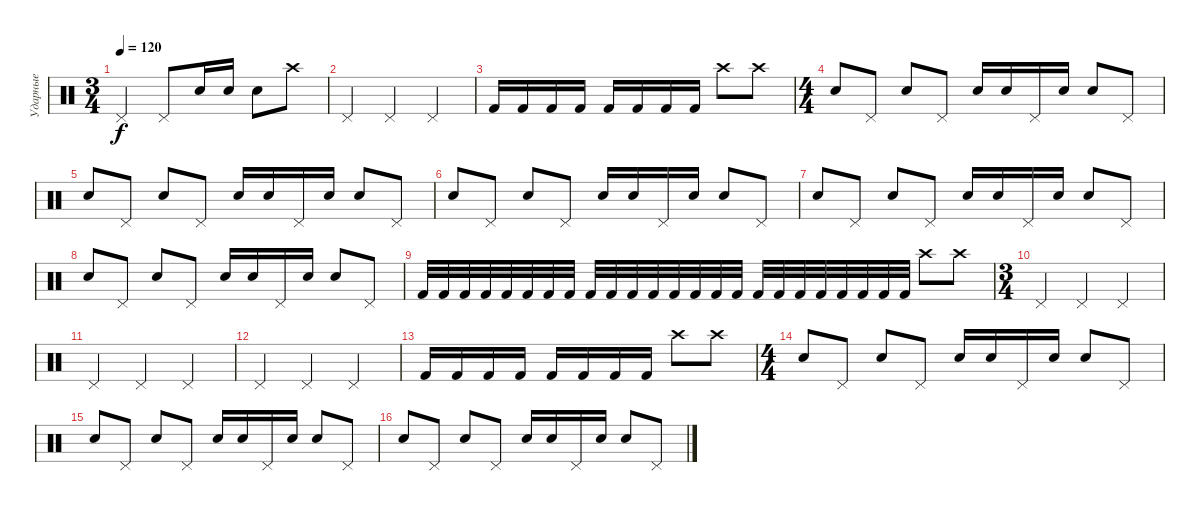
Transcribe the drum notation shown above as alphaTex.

\track ("Ударные" "Ударные") {instrument percussion}
\staff {score}
\articulation defaults
\ts (3 4)
\tempo 120
\clef neutral
\ks c "Pedal Hi-Hat (hit)".4{dy f} "Pedal Hi-Hat (hit)".8 "Snare (hit) 2".16 "Snare (hit) 2".16 "Snare (hit) 2".8 "Crash high (hit)".8
|
"Pedal Hi-Hat (hit)".4 "Pedal Hi-Hat (hit)".4 "Pedal Hi-Hat (hit)".4 |
"Kick (hit) 2".16 "Kick (hit) 2".16 "Kick (hit) 2".16 "Kick (hit) 2".16 "Kick (hit) 2".16 "Kick (hit) 2".16 "Kick (hit) 2".16 "Kick (hit) 2".16 "Crash high (hit)".8 "Crash high (hit)".8 |
\ts (4 4)
"Snare (hit) 2".8 "Pedal Hi-Hat (hit)".8 "Snare (hit) 2".8 "Pedal Hi-Hat (hit)".8 "Snare (hit) 2".16 "Snare (hit) 2".16 "Pedal Hi-Hat (hit)".16 "Snare (hit) 2".16 "Snare (hit) 2".8 "Pedal Hi-Hat (hit)".8 |
"Snare (hit) 2".8 "Pedal Hi-Hat (hit)".8 "Snare (hit) 2".8 "Pedal Hi-Hat (hit)".8 "Snare (hit) 2".16 "Snare (hit) 2".16 "Pedal Hi-Hat (hit)".16 "Snare (hit) 2".16 "Snare (hit) 2".8 "Pedal Hi-Hat (hit)".8 |
"Snare (hit) 2".8 "Pedal Hi-Hat (hit)".8 "Snare (hit) 2".8 "Pedal Hi-Hat (hit)".8 "Snare (hit) 2".16 "Snare (hit) 2".16 "Pedal Hi-Hat (hit)".16 "Snare (hit) 2".16 "Snare (hit) 2".8 "Pedal Hi-Hat (hit)".8 |
"Snare (hit) 2".8 "Pedal Hi-Hat (hit)".8 "Snare (hit) 2".8 "Pedal Hi-Hat (hit)".8 "Snare (hit) 2".16 "Snare (hit) 2".16 "Pedal Hi-Hat (hit)".16 "Snare (hit) 2".16 "Snare (hit) 2".8 "Pedal Hi-Hat (hit)".8 |
"Snare (hit) 2".8 "Pedal Hi-Hat (hit)".8 "Snare (hit) 2".8 "Pedal Hi-Hat (hit)".8 "Snare (hit) 2".16 "Snare (hit) 2".16 "Pedal Hi-Hat (hit)".16 "Snare (hit) 2".16 "Snare (hit) 2".8 "Pedal Hi-Hat (hit)".8 |
"Kick (hit) 2".32 "Kick (hit) 2".32 "Kick (hit) 2".32 "Kick (hit) 2".32 "Kick (hit) 2".32 "Kick (hit) 2".32 "Kick (hit) 2".32 "Kick (hit) 2".32 "Kick (hit) 2".32 "Kick (hit) 2".32 "Kick (hit) 2".32 "Kick (hit) 2".32 "Kick (hit) 2".32 "Kick (hit) 2".32 "Kick (hit) 2".32 "Kick (hit) 2".32 "Kick (hit) 2".32 "Kick (hit) 2".32 "Kick (hit) 2".32 "Kick (hit) 2".32 "Kick (hit) 2".32 "Kick (hit) 2".32 "Kick (hit) 2".32 "Kick (hit) 2".32 "Crash high (hit)".8 "Crash high (hit)".8 |
\ts (3 4)
"Pedal Hi-Hat (hit)".4 "Pedal Hi-Hat (hit)".4 "Pedal Hi-Hat (hit)".4 |
"Pedal Hi-Hat (hit)".4 "Pedal Hi-Hat (hit)".4 "Pedal Hi-Hat (hit)".4 |
"Pedal Hi-Hat (hit)".4 "Pedal Hi-Hat (hit)".4 "Pedal Hi-Hat (hit)".4 |
"Kick (hit) 2".16 "Kick (hit) 2".16 "Kick (hit) 2".16 "Kick (hit) 2".16 "Kick (hit) 2".16 "Kick (hit) 2".16 "Kick (hit) 2".16 "Kick (hit) 2".16 "Crash high (hit)".8 "Crash high (hit)".8 |
\ts (4 4)
"Snare (hit) 2".8 "Pedal Hi-Hat (hit)".8 "Snare (hit) 2".8 "Pedal Hi-Hat (hit)".8 "Snare (hit) 2".16 "Snare (hit) 2".16 "Pedal Hi-Hat (hit)".16 "Snare (hit) 2".16 "Snare (hit) 2".8 "Pedal Hi-Hat (hit)".8 |
"Snare (hit) 2".8 "Pedal Hi-Hat (hit)".8 "Snare (hit) 2".8 "Pedal Hi-Hat (hit)".8 "Snare (hit) 2".16 "Snare (hit) 2".16 "Pedal Hi-Hat (hit)".16 "Snare (hit) 2".16 "Snare (hit) 2".8 "Pedal Hi-Hat (hit)".8 |
"Snare (hit) 2".8 "Pedal Hi-Hat (hit)".8 "Snare (hit) 2".8 "Pedal Hi-Hat (hit)".8 "Snare (hit) 2".16 "Snare (hit) 2".16 "Pedal Hi-Hat (hit)".16 "Snare (hit) 2".16 "Snare (hit) 2".8 "Pedal Hi-Hat (hit)".8
